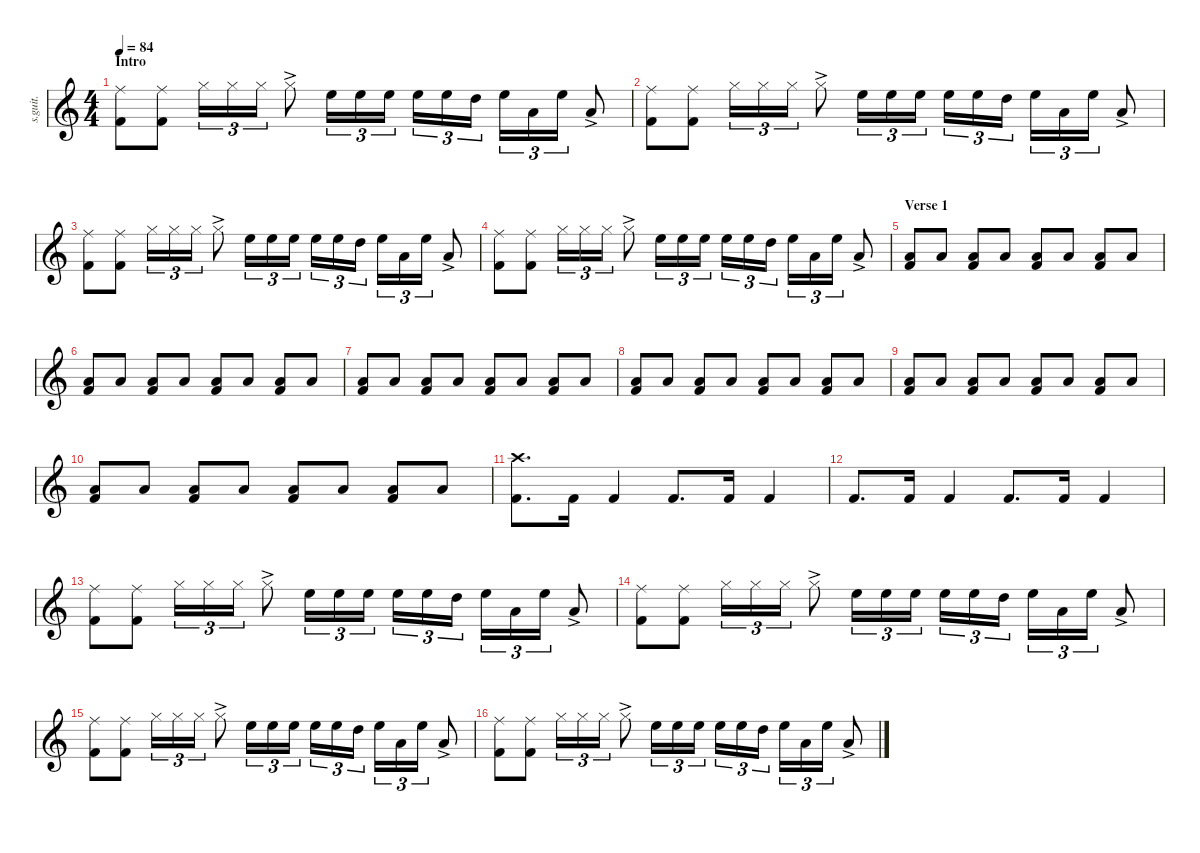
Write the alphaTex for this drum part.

\defaultSystemsLayout 4
\hideDynamics
\bracketExtendMode nobrackets
\track ("Ringo Starr - Drums" "s.guit.") {instrument percussion}
\staff {score}
\articulation defaults
\ts (4 4)
\beaming (8 2 2 2 2)
\section ("" "Intro")
\tempo 84
\clef g2
\ks c
("Ride (middle)" "Kick (hit) 2").8{lyrics (0 "") lyrics (1 "") lyrics (2 "") lyrics (3 "") lyrics (4 "") dy f} ("Ride (middle)" "Kick (hit) 2").8{lyrics (0 "") lyrics (1 "") lyrics (2 "") lyrics (3 "") lyrics (4 "")} "Hi-Hat (closed)".16{tu (3 2) lyrics (0 "") lyrics (1 "") lyrics (2 "") lyrics (3 "") lyrics (4 "")} "Hi-Hat (closed)".16{tu (3 2) lyrics (0 "") lyrics (1 "") lyrics (2 "") lyrics (3 "") lyrics (4 "")} "Hi-Hat (closed)".16{tu (3 2) lyrics (0 "") lyrics (1 "") lyrics (2 "") lyrics (3 "") lyrics (4 "")} "Hi-Hat (closed)"{ac}.8{lyrics (0 "") lyrics (1 "") lyrics (2 "") lyrics (3 "") lyrics (4 "")} "High Floor Tom (hit)".16{tu (3 2) lyrics (0 "") lyrics (1 "") lyrics (2 "") lyrics (3 "") lyrics (4 "")} "High Floor Tom (hit)".16{tu (3 2) lyrics (0 "") lyrics (1 "") lyrics (2 "") lyrics (3 "") lyrics (4 "")} "High Floor Tom (hit)".16{tu (3 2) lyrics (0 "") lyrics (1 "") lyrics (2 "") lyrics (3 "") lyrics (4 "")} "High Floor Tom (hit)".16{tu (3 2) lyrics (0 "") lyrics (1 "") lyrics (2 "") lyrics (3 "") lyrics (4 "")} "High Floor Tom (hit)".16{tu (3 2) lyrics (0 "") lyrics (1 "") lyrics (2 "") lyrics (3 "") lyrics (4 "")} "High Tom (hit)".16{tu (3 2) lyrics (0 "") lyrics (1 "") lyrics (2 "") lyrics (3 "") lyrics (4 "")} "High Floor Tom (hit)".16{tu (3 2) lyrics (0 "") lyrics (1 "") lyrics (2 "") lyrics (3 "") lyrics (4 "")} "Low Tom (hit)".16{tu (3 2) lyrics (0 "") lyrics (1 "") lyrics (2 "") lyrics (3 "") lyrics (4 "")} "High Floor Tom (hit)".16{tu (3 2) lyrics (0 "") lyrics (1 "") lyrics (2 "") lyrics (3 "") lyrics (4 "")} "Low Tom (hit)"{ac}.8{lyrics (0 "") lyrics (1 "") lyrics (2 "") lyrics (3 "") lyrics (4 "")} |
("Ride (middle)" "Kick (hit) 2").8{lyrics (0 "") lyrics (1 "") lyrics (2 "") lyrics (3 "") lyrics (4 "")} ("Ride (middle)" "Kick (hit) 2").8{lyrics (0 "") lyrics (1 "") lyrics (2 "") lyrics (3 "") lyrics (4 "")} "Hi-Hat (closed)".16{tu (3 2) lyrics (0 "") lyrics (1 "") lyrics (2 "") lyrics (3 "") lyrics (4 "")} "Hi-Hat (closed)".16{tu (3 2) lyrics (0 "") lyrics (1 "") lyrics (2 "") lyrics (3 "") lyrics (4 "")} "Hi-Hat (closed)".16{tu (3 2) lyrics (0 "") lyrics (1 "") lyrics (2 "") lyrics (3 "") lyrics (4 "")} "Hi-Hat (closed)"{ac}.8{lyrics (0 "") lyrics (1 "") lyrics (2 "") lyrics (3 "") lyrics (4 "")} "High Floor Tom (hit)".16{tu (3 2) lyrics (0 "") lyrics (1 "") lyrics (2 "") lyrics (3 "") lyrics (4 "")} "High Floor Tom (hit)".16{tu (3 2) lyrics (0 "") lyrics (1 "") lyrics (2 "") lyrics (3 "") lyrics (4 "")} "High Floor Tom (hit)".16{tu (3 2) lyrics (0 "") lyrics (1 "") lyrics (2 "") lyrics (3 "") lyrics (4 "")} "High Floor Tom (hit)".16{tu (3 2) lyrics (0 "") lyrics (1 "") lyrics (2 "") lyrics (3 "") lyrics (4 "")} "High Floor Tom (hit)".16{tu (3 2) lyrics (0 "") lyrics (1 "") lyrics (2 "") lyrics (3 "") lyrics (4 "")} "High Tom (hit)".16{tu (3 2) lyrics (0 "") lyrics (1 "") lyrics (2 "") lyrics (3 "") lyrics (4 "")} "High Floor Tom (hit)".16{tu (3 2) lyrics (0 "") lyrics (1 "") lyrics (2 "") lyrics (3 "") lyrics (4 "")} "Low Tom (hit)".16{tu (3 2) lyrics (0 "") lyrics (1 "") lyrics (2 "") lyrics (3 "") lyrics (4 "")} "High Floor Tom (hit)".16{tu (3 2) lyrics (0 "") lyrics (1 "") lyrics (2 "") lyrics (3 "") lyrics (4 "")} "Low Tom (hit)"{ac}.8{lyrics (0 "") lyrics (1 "") lyrics (2 "") lyrics (3 "") lyrics (4 "")} |
("Ride (middle)" "Kick (hit) 2").8{lyrics (0 "") lyrics (1 "") lyrics (2 "") lyrics (3 "") lyrics (4 "")} ("Ride (middle)" "Kick (hit) 2").8{lyrics (0 "") lyrics (1 "") lyrics (2 "") lyrics (3 "") lyrics (4 "")} "Hi-Hat (closed)".16{tu (3 2) lyrics (0 "") lyrics (1 "") lyrics (2 "") lyrics (3 "") lyrics (4 "")} "Hi-Hat (closed)".16{tu (3 2) lyrics (0 "") lyrics (1 "") lyrics (2 "") lyrics (3 "") lyrics (4 "")} "Hi-Hat (closed)".16{tu (3 2) lyrics (0 "") lyrics (1 "") lyrics (2 "") lyrics (3 "") lyrics (4 "")} "Hi-Hat (closed)"{ac}.8{lyrics (0 "") lyrics (1 "") lyrics (2 "") lyrics (3 "") lyrics (4 "")} "High Floor Tom (hit)".16{tu (3 2) lyrics (0 "") lyrics (1 "") lyrics (2 "") lyrics (3 "") lyrics (4 "")} "High Floor Tom (hit)".16{tu (3 2) lyrics (0 "") lyrics (1 "") lyrics (2 "") lyrics (3 "") lyrics (4 "")} "High Floor Tom (hit)".16{tu (3 2) lyrics (0 "") lyrics (1 "") lyrics (2 "") lyrics (3 "") lyrics (4 "")} "High Floor Tom (hit)".16{tu (3 2) lyrics (0 "") lyrics (1 "") lyrics (2 "") lyrics (3 "") lyrics (4 "")} "High Floor Tom (hit)".16{tu (3 2) lyrics (0 "") lyrics (1 "") lyrics (2 "") lyrics (3 "") lyrics (4 "")} "High Tom (hit)".16{tu (3 2) lyrics (0 "") lyrics (1 "") lyrics (2 "") lyrics (3 "") lyrics (4 "")} "High Floor Tom (hit)".16{tu (3 2) lyrics (0 "") lyrics (1 "") lyrics (2 "") lyrics (3 "") lyrics (4 "")} "Low Tom (hit)".16{tu (3 2) lyrics (0 "") lyrics (1 "") lyrics (2 "") lyrics (3 "") lyrics (4 "")} "High Floor Tom (hit)".16{tu (3 2) lyrics (0 "") lyrics (1 "") lyrics (2 "") lyrics (3 "") lyrics (4 "")} "Low Tom (hit)"{ac}.8{lyrics (0 "") lyrics (1 "") lyrics (2 "") lyrics (3 "") lyrics (4 "")} |
("Ride (middle)" "Kick (hit) 2").8{lyrics (0 "") lyrics (1 "") lyrics (2 "") lyrics (3 "") lyrics (4 "")} ("Ride (middle)" "Kick (hit) 2").8{lyrics (0 "") lyrics (1 "") lyrics (2 "") lyrics (3 "") lyrics (4 "")} "Hi-Hat (closed)".16{tu (3 2) lyrics (0 "") lyrics (1 "") lyrics (2 "") lyrics (3 "") lyrics (4 "")} "Hi-Hat (closed)".16{tu (3 2) lyrics (0 "") lyrics (1 "") lyrics (2 "") lyrics (3 "") lyrics (4 "")} "Hi-Hat (closed)".16{tu (3 2) lyrics (0 "") lyrics (1 "") lyrics (2 "") lyrics (3 "") lyrics (4 "")} "Hi-Hat (closed)"{ac}.8{lyrics (0 "") lyrics (1 "") lyrics (2 "") lyrics (3 "") lyrics (4 "")} "High Floor Tom (hit)".16{tu (3 2) lyrics (0 "") lyrics (1 "") lyrics (2 "") lyrics (3 "") lyrics (4 "")} "High Floor Tom (hit)".16{tu (3 2) lyrics (0 "") lyrics (1 "") lyrics (2 "") lyrics (3 "") lyrics (4 "")} "High Floor Tom (hit)".16{tu (3 2) lyrics (0 "") lyrics (1 "") lyrics (2 "") lyrics (3 "") lyrics (4 "")} "High Floor Tom (hit)".16{tu (3 2) lyrics (0 "") lyrics (1 "") lyrics (2 "") lyrics (3 "") lyrics (4 "")} "High Floor Tom (hit)".16{tu (3 2) lyrics (0 "") lyrics (1 "") lyrics (2 "") lyrics (3 "") lyrics (4 "")} "High Tom (hit)".16{tu (3 2) lyrics (0 "") lyrics (1 "") lyrics (2 "") lyrics (3 "") lyrics (4 "")} "High Floor Tom (hit)".16{tu (3 2) lyrics (0 "") lyrics (1 "") lyrics (2 "") lyrics (3 "") lyrics (4 "")} "Low Tom (hit)".16{tu (3 2) lyrics (0 "") lyrics (1 "") lyrics (2 "") lyrics (3 "") lyrics (4 "")} "High Floor Tom (hit)".16{tu (3 2) lyrics (0 "") lyrics (1 "") lyrics (2 "") lyrics (3 "") lyrics (4 "")} "Low Tom (hit)"{ac}.8{lyrics (0 "") lyrics (1 "") lyrics (2 "") lyrics (3 "") lyrics (4 "")} |
\section ("" "Verse 1")
("Kick (hit) 2" "Low Tom (hit)").8{lyrics (0 "") lyrics (1 "") lyrics (2 "") lyrics (3 "") lyrics (4 "")} "Low Tom (hit)".8{lyrics (0 "") lyrics (1 "") lyrics (2 "") lyrics (3 "") lyrics (4 "")} ("Kick (hit) 2" "Low Tom (hit)").8{lyrics (0 "") lyrics (1 "") lyrics (2 "") lyrics (3 "") lyrics (4 "")} "Low Tom (hit)".8{lyrics (0 "") lyrics (1 "") lyrics (2 "") lyrics (3 "") lyrics (4 "")} ("Kick (hit) 2" "Low Tom (hit)").8{lyrics (0 "") lyrics (1 "") lyrics (2 "") lyrics (3 "") lyrics (4 "")} "Low Tom (hit)".8{lyrics (0 "") lyrics (1 "") lyrics (2 "") lyrics (3 "") lyrics (4 "")} ("Kick (hit) 2" "Low Tom (hit)").8{lyrics (0 "") lyrics (1 "") lyrics (2 "") lyrics (3 "") lyrics (4 "")} "Low Tom (hit)".8{lyrics (0 "") lyrics (1 "") lyrics (2 "") lyrics (3 "") lyrics (4 "")} |
("Kick (hit) 2" "Low Tom (hit)").8{lyrics (0 "") lyrics (1 "") lyrics (2 "") lyrics (3 "") lyrics (4 "")} "Low Tom (hit)".8{lyrics (0 "") lyrics (1 "") lyrics (2 "") lyrics (3 "") lyrics (4 "")} ("Kick (hit) 2" "Low Tom (hit)").8{lyrics (0 "") lyrics (1 "") lyrics (2 "") lyrics (3 "") lyrics (4 "")} "Low Tom (hit)".8{lyrics (0 "") lyrics (1 "") lyrics (2 "") lyrics (3 "") lyrics (4 "")} ("Kick (hit) 2" "Low Tom (hit)").8{lyrics (0 "") lyrics (1 "") lyrics (2 "") lyrics (3 "") lyrics (4 "")} "Low Tom (hit)".8{lyrics (0 "") lyrics (1 "") lyrics (2 "") lyrics (3 "") lyrics (4 "")} ("Kick (hit) 2" "Low Tom (hit)").8{lyrics (0 "") lyrics (1 "") lyrics (2 "") lyrics (3 "") lyrics (4 "")} "Low Tom (hit)".8{lyrics (0 "") lyrics (1 "") lyrics (2 "") lyrics (3 "") lyrics (4 "")} |
("Kick (hit) 2" "Low Tom (hit)").8{lyrics (0 "") lyrics (1 "") lyrics (2 "") lyrics (3 "") lyrics (4 "")} "Low Tom (hit)".8{lyrics (0 "") lyrics (1 "") lyrics (2 "") lyrics (3 "") lyrics (4 "")} ("Kick (hit) 2" "Low Tom (hit)").8{lyrics (0 "") lyrics (1 "") lyrics (2 "") lyrics (3 "") lyrics (4 "")} "Low Tom (hit)".8{lyrics (0 "") lyrics (1 "") lyrics (2 "") lyrics (3 "") lyrics (4 "")} ("Kick (hit) 2" "Low Tom (hit)").8{lyrics (0 "") lyrics (1 "") lyrics (2 "") lyrics (3 "") lyrics (4 "")} "Low Tom (hit)".8{lyrics (0 "") lyrics (1 "") lyrics (2 "") lyrics (3 "") lyrics (4 "")} ("Kick (hit) 2" "Low Tom (hit)").8{lyrics (0 "") lyrics (1 "") lyrics (2 "") lyrics (3 "") lyrics (4 "")} "Low Tom (hit)".8{lyrics (0 "") lyrics (1 "") lyrics (2 "") lyrics (3 "") lyrics (4 "")} |
("Kick (hit) 2" "Low Tom (hit)").8{lyrics (0 "") lyrics (1 "") lyrics (2 "") lyrics (3 "") lyrics (4 "")} "Low Tom (hit)".8{lyrics (0 "") lyrics (1 "") lyrics (2 "") lyrics (3 "") lyrics (4 "")} ("Kick (hit) 2" "Low Tom (hit)").8{lyrics (0 "") lyrics (1 "") lyrics (2 "") lyrics (3 "") lyrics (4 "")} "Low Tom (hit)".8{lyrics (0 "") lyrics (1 "") lyrics (2 "") lyrics (3 "") lyrics (4 "")} ("Kick (hit) 2" "Low Tom (hit)").8{lyrics (0 "") lyrics (1 "") lyrics (2 "") lyrics (3 "") lyrics (4 "")} "Low Tom (hit)".8{lyrics (0 "") lyrics (1 "") lyrics (2 "") lyrics (3 "") lyrics (4 "")} ("Kick (hit) 2" "Low Tom (hit)").8{lyrics (0 "") lyrics (1 "") lyrics (2 "") lyrics (3 "") lyrics (4 "")} "Low Tom (hit)".8{lyrics (0 "") lyrics (1 "") lyrics (2 "") lyrics (3 "") lyrics (4 "")} |
("Kick (hit) 2" "Low Tom (hit)").8{lyrics (0 "") lyrics (1 "") lyrics (2 "") lyrics (3 "") lyrics (4 "")} "Low Tom (hit)".8{lyrics (0 "") lyrics (1 "") lyrics (2 "") lyrics (3 "") lyrics (4 "")} ("Kick (hit) 2" "Low Tom (hit)").8{lyrics (0 "") lyrics (1 "") lyrics (2 "") lyrics (3 "") lyrics (4 "")} "Low Tom (hit)".8{lyrics (0 "") lyrics (1 "") lyrics (2 "") lyrics (3 "") lyrics (4 "")} ("Kick (hit) 2" "Low Tom (hit)").8{lyrics (0 "") lyrics (1 "") lyrics (2 "") lyrics (3 "") lyrics (4 "")} "Low Tom (hit)".8{lyrics (0 "") lyrics (1 "") lyrics (2 "") lyrics (3 "") lyrics (4 "")} ("Kick (hit) 2" "Low Tom (hit)").8{lyrics (0 "") lyrics (1 "") lyrics (2 "") lyrics (3 "") lyrics (4 "")} "Low Tom (hit)".8{lyrics (0 "") lyrics (1 "") lyrics (2 "") lyrics (3 "") lyrics (4 "")} |
("Kick (hit) 2" "Low Tom (hit)").8{lyrics (0 "") lyrics (1 "") lyrics (2 "") lyrics (3 "") lyrics (4 "")} "Low Tom (hit)".8{lyrics (0 "") lyrics (1 "") lyrics (2 "") lyrics (3 "") lyrics (4 "")} ("Kick (hit) 2" "Low Tom (hit)").8{lyrics (0 "") lyrics (1 "") lyrics (2 "") lyrics (3 "") lyrics (4 "")} "Low Tom (hit)".8{lyrics (0 "") lyrics (1 "") lyrics (2 "") lyrics (3 "") lyrics (4 "")} ("Kick (hit) 2" "Low Tom (hit)").8{lyrics (0 "") lyrics (1 "") lyrics (2 "") lyrics (3 "") lyrics (4 "")} "Low Tom (hit)".8{lyrics (0 "") lyrics (1 "") lyrics (2 "") lyrics (3 "") lyrics (4 "")} ("Kick (hit) 2" "Low Tom (hit)").8{lyrics (0 "") lyrics (1 "") lyrics (2 "") lyrics (3 "") lyrics (4 "")} "Low Tom (hit)".8{lyrics (0 "") lyrics (1 "") lyrics (2 "") lyrics (3 "") lyrics (4 "")} |
("Kick (hit) 2" "Crash high (hit)").8{d lyrics (0 "") lyrics (1 "") lyrics (2 "") lyrics (3 "") lyrics (4 "")} "Kick (hit) 2".16{lyrics (0 "") lyrics (1 "") lyrics (2 "") lyrics (3 "") lyrics (4 "")} "Kick (hit) 2".4{lyrics (0 "") lyrics (1 "") lyrics (2 "") lyrics (3 "") lyrics (4 "")} "Kick (hit) 2".8{d lyrics (0 "") lyrics (1 "") lyrics (2 "") lyrics (3 "") lyrics (4 "")} "Kick (hit) 2".16{lyrics (0 "") lyrics (1 "") lyrics (2 "") lyrics (3 "") lyrics (4 "")} "Kick (hit) 2".4{lyrics (0 "") lyrics (1 "") lyrics (2 "") lyrics (3 "") lyrics (4 "")} |
"Kick (hit) 2".8{d lyrics (0 "") lyrics (1 "") lyrics (2 "") lyrics (3 "") lyrics (4 "")} "Kick (hit) 2".16{lyrics (0 "") lyrics (1 "") lyrics (2 "") lyrics (3 "") lyrics (4 "")} "Kick (hit) 2".4{lyrics (0 "") lyrics (1 "") lyrics (2 "") lyrics (3 "") lyrics (4 "")} "Kick (hit) 2".8{d lyrics (0 "") lyrics (1 "") lyrics (2 "") lyrics (3 "") lyrics (4 "")} "Kick (hit) 2".16{lyrics (0 "") lyrics (1 "") lyrics (2 "") lyrics (3 "") lyrics (4 "")} "Kick (hit) 2".4{lyrics (0 "") lyrics (1 "") lyrics (2 "") lyrics (3 "") lyrics (4 "")} |
("Ride (middle)" "Kick (hit) 2").8{lyrics (0 "") lyrics (1 "") lyrics (2 "") lyrics (3 "") lyrics (4 "")} ("Ride (middle)" "Kick (hit) 2").8{lyrics (0 "") lyrics (1 "") lyrics (2 "") lyrics (3 "") lyrics (4 "")} "Hi-Hat (closed)".16{tu (3 2) lyrics (0 "") lyrics (1 "") lyrics (2 "") lyrics (3 "") lyrics (4 "")} "Hi-Hat (closed)".16{tu (3 2) lyrics (0 "") lyrics (1 "") lyrics (2 "") lyrics (3 "") lyrics (4 "")} "Hi-Hat (closed)".16{tu (3 2) lyrics (0 "") lyrics (1 "") lyrics (2 "") lyrics (3 "") lyrics (4 "")} "Hi-Hat (closed)"{ac}.8{lyrics (0 "") lyrics (1 "") lyrics (2 "") lyrics (3 "") lyrics (4 "")} "High Floor Tom (hit)".16{tu (3 2) lyrics (0 "") lyrics (1 "") lyrics (2 "") lyrics (3 "") lyrics (4 "")} "High Floor Tom (hit)".16{tu (3 2) lyrics (0 "") lyrics (1 "") lyrics (2 "") lyrics (3 "") lyrics (4 "")} "High Floor Tom (hit)".16{tu (3 2) lyrics (0 "") lyrics (1 "") lyrics (2 "") lyrics (3 "") lyrics (4 "")} "High Floor Tom (hit)".16{tu (3 2) lyrics (0 "") lyrics (1 "") lyrics (2 "") lyrics (3 "") lyrics (4 "")} "High Floor Tom (hit)".16{tu (3 2) lyrics (0 "") lyrics (1 "") lyrics (2 "") lyrics (3 "") lyrics (4 "")} "High Tom (hit)".16{tu (3 2) lyrics (0 "") lyrics (1 "") lyrics (2 "") lyrics (3 "") lyrics (4 "")} "High Floor Tom (hit)".16{tu (3 2) lyrics (0 "") lyrics (1 "") lyrics (2 "") lyrics (3 "") lyrics (4 "")} "Low Tom (hit)".16{tu (3 2) lyrics (0 "") lyrics (1 "") lyrics (2 "") lyrics (3 "") lyrics (4 "")} "High Floor Tom (hit)".16{tu (3 2) lyrics (0 "") lyrics (1 "") lyrics (2 "") lyrics (3 "") lyrics (4 "")} "Low Tom (hit)"{ac}.8{lyrics (0 "") lyrics (1 "") lyrics (2 "") lyrics (3 "") lyrics (4 "")} |
("Ride (middle)" "Kick (hit) 2").8{lyrics (0 "") lyrics (1 "") lyrics (2 "") lyrics (3 "") lyrics (4 "")} ("Ride (middle)" "Kick (hit) 2").8{lyrics (0 "") lyrics (1 "") lyrics (2 "") lyrics (3 "") lyrics (4 "")} "Hi-Hat (closed)".16{tu (3 2) lyrics (0 "") lyrics (1 "") lyrics (2 "") lyrics (3 "") lyrics (4 "")} "Hi-Hat (closed)".16{tu (3 2) lyrics (0 "") lyrics (1 "") lyrics (2 "") lyrics (3 "") lyrics (4 "")} "Hi-Hat (closed)".16{tu (3 2) lyrics (0 "") lyrics (1 "") lyrics (2 "") lyrics (3 "") lyrics (4 "")} "Hi-Hat (closed)"{ac}.8{lyrics (0 "") lyrics (1 "") lyrics (2 "") lyrics (3 "") lyrics (4 "")} "High Floor Tom (hit)".16{tu (3 2) lyrics (0 "") lyrics (1 "") lyrics (2 "") lyrics (3 "") lyrics (4 "")} "High Floor Tom (hit)".16{tu (3 2) lyrics (0 "") lyrics (1 "") lyrics (2 "") lyrics (3 "") lyrics (4 "")} "High Floor Tom (hit)".16{tu (3 2) lyrics (0 "") lyrics (1 "") lyrics (2 "") lyrics (3 "") lyrics (4 "")} "High Floor Tom (hit)".16{tu (3 2) lyrics (0 "") lyrics (1 "") lyrics (2 "") lyrics (3 "") lyrics (4 "")} "High Floor Tom (hit)".16{tu (3 2) lyrics (0 "") lyrics (1 "") lyrics (2 "") lyrics (3 "") lyrics (4 "")} "High Tom (hit)".16{tu (3 2) lyrics (0 "") lyrics (1 "") lyrics (2 "") lyrics (3 "") lyrics (4 "")} "High Floor Tom (hit)".16{tu (3 2) lyrics (0 "") lyrics (1 "") lyrics (2 "") lyrics (3 "") lyrics (4 "")} "Low Tom (hit)".16{tu (3 2) lyrics (0 "") lyrics (1 "") lyrics (2 "") lyrics (3 "") lyrics (4 "")} "High Floor Tom (hit)".16{tu (3 2) lyrics (0 "") lyrics (1 "") lyrics (2 "") lyrics (3 "") lyrics (4 "")} "Low Tom (hit)"{ac}.8{lyrics (0 "") lyrics (1 "") lyrics (2 "") lyrics (3 "") lyrics (4 "")} |
("Ride (middle)" "Kick (hit) 2").8{lyrics (0 "") lyrics (1 "") lyrics (2 "") lyrics (3 "") lyrics (4 "")} ("Ride (middle)" "Kick (hit) 2").8{lyrics (0 "") lyrics (1 "") lyrics (2 "") lyrics (3 "") lyrics (4 "")} "Hi-Hat (closed)".16{tu (3 2) lyrics (0 "") lyrics (1 "") lyrics (2 "") lyrics (3 "") lyrics (4 "")} "Hi-Hat (closed)".16{tu (3 2) lyrics (0 "") lyrics (1 "") lyrics (2 "") lyrics (3 "") lyrics (4 "")} "Hi-Hat (closed)".16{tu (3 2) lyrics (0 "") lyrics (1 "") lyrics (2 "") lyrics (3 "") lyrics (4 "")} "Hi-Hat (closed)"{ac}.8{lyrics (0 "") lyrics (1 "") lyrics (2 "") lyrics (3 "") lyrics (4 "")} "High Floor Tom (hit)".16{tu (3 2) lyrics (0 "") lyrics (1 "") lyrics (2 "") lyrics (3 "") lyrics (4 "")} "High Floor Tom (hit)".16{tu (3 2) lyrics (0 "") lyrics (1 "") lyrics (2 "") lyrics (3 "") lyrics (4 "")} "High Floor Tom (hit)".16{tu (3 2) lyrics (0 "") lyrics (1 "") lyrics (2 "") lyrics (3 "") lyrics (4 "")} "High Floor Tom (hit)".16{tu (3 2) lyrics (0 "") lyrics (1 "") lyrics (2 "") lyrics (3 "") lyrics (4 "")} "High Floor Tom (hit)".16{tu (3 2) lyrics (0 "") lyrics (1 "") lyrics (2 "") lyrics (3 "") lyrics (4 "")} "High Tom (hit)".16{tu (3 2) lyrics (0 "") lyrics (1 "") lyrics (2 "") lyrics (3 "") lyrics (4 "")} "High Floor Tom (hit)".16{tu (3 2) lyrics (0 "") lyrics (1 "") lyrics (2 "") lyrics (3 "") lyrics (4 "")} "Low Tom (hit)".16{tu (3 2) lyrics (0 "") lyrics (1 "") lyrics (2 "") lyrics (3 "") lyrics (4 "")} "High Floor Tom (hit)".16{tu (3 2) lyrics (0 "") lyrics (1 "") lyrics (2 "") lyrics (3 "") lyrics (4 "")} "Low Tom (hit)"{ac}.8{lyrics (0 "") lyrics (1 "") lyrics (2 "") lyrics (3 "") lyrics (4 "")} |
("Ride (middle)" "Kick (hit) 2").8{lyrics (0 "") lyrics (1 "") lyrics (2 "") lyrics (3 "") lyrics (4 "")} ("Ride (middle)" "Kick (hit) 2").8{lyrics (0 "") lyrics (1 "") lyrics (2 "") lyrics (3 "") lyrics (4 "")} "Hi-Hat (closed)".16{tu (3 2) lyrics (0 "") lyrics (1 "") lyrics (2 "") lyrics (3 "") lyrics (4 "")} "Hi-Hat (closed)".16{tu (3 2) lyrics (0 "") lyrics (1 "") lyrics (2 "") lyrics (3 "") lyrics (4 "")} "Hi-Hat (closed)".16{tu (3 2) lyrics (0 "") lyrics (1 "") lyrics (2 "") lyrics (3 "") lyrics (4 "")} "Hi-Hat (closed)"{ac}.8{lyrics (0 "") lyrics (1 "") lyrics (2 "") lyrics (3 "") lyrics (4 "")} "High Floor Tom (hit)".16{tu (3 2) lyrics (0 "") lyrics (1 "") lyrics (2 "") lyrics (3 "") lyrics (4 "")} "High Floor Tom (hit)".16{tu (3 2) lyrics (0 "") lyrics (1 "") lyrics (2 "") lyrics (3 "") lyrics (4 "")} "High Floor Tom (hit)".16{tu (3 2) lyrics (0 "") lyrics (1 "") lyrics (2 "") lyrics (3 "") lyrics (4 "")} "High Floor Tom (hit)".16{tu (3 2) lyrics (0 "") lyrics (1 "") lyrics (2 "") lyrics (3 "") lyrics (4 "")} "High Floor Tom (hit)".16{tu (3 2) lyrics (0 "") lyrics (1 "") lyrics (2 "") lyrics (3 "") lyrics (4 "")} "High Tom (hit)".16{tu (3 2) lyrics (0 "") lyrics (1 "") lyrics (2 "") lyrics (3 "") lyrics (4 "")} "High Floor Tom (hit)".16{tu (3 2) lyrics (0 "") lyrics (1 "") lyrics (2 "") lyrics (3 "") lyrics (4 "")} "Low Tom (hit)".16{tu (3 2) lyrics (0 "") lyrics (1 "") lyrics (2 "") lyrics (3 "") lyrics (4 "")} "High Floor Tom (hit)".16{tu (3 2) lyrics (0 "") lyrics (1 "") lyrics (2 "") lyrics (3 "") lyrics (4 "")} "Low Tom (hit)"{ac}.8{lyrics (0 "") lyrics (1 "") lyrics (2 "") lyrics (3 "") lyrics (4 "")}
